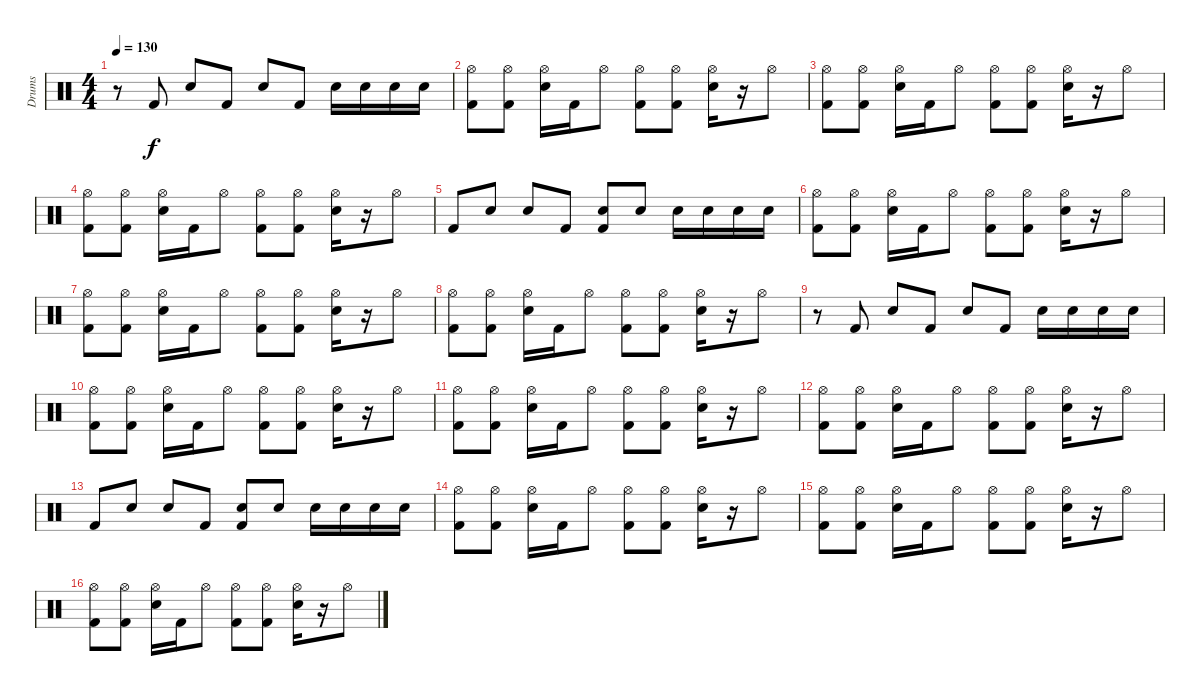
\track ("Drums" "Drums") {instrument percussion}
\staff {score}
\articulation defaults
\ts (4 4)
\tempo 130
\clef neutral
\ks c
r.8{dy f} "Kick (hit) 2".8 "Snare (hit) 2".8 "Kick (hit) 2".8 "Snare (hit) 2".8 "Kick (hit) 2".8 "Snare (hit) 2".16 "Snare (hit) 2".16 "Snare (hit) 2".16 "Snare (hit) 2".16 |
("Hi-Hat (open)" "Kick (hit) 2").8 ("Hi-Hat (open)" "Kick (hit) 2").8 ("Hi-Hat (open)" "Snare (hit) 2").16 "Kick (hit) 2".16 "Hi-Hat (open)".8 ("Hi-Hat (open)" "Kick (hit) 2").8 ("Hi-Hat (open)" "Kick (hit) 2").8 ("Hi-Hat (open)" "Snare (hit) 2").16 r.16 "Hi-Hat (open)".8 |
("Hi-Hat (open)" "Kick (hit) 2").8 ("Hi-Hat (open)" "Kick (hit) 2").8 ("Hi-Hat (open)" "Snare (hit) 2").16 "Kick (hit) 2".16 "Hi-Hat (open)".8 ("Hi-Hat (open)" "Kick (hit) 2").8 ("Hi-Hat (open)" "Kick (hit) 2").8 ("Hi-Hat (open)" "Snare (hit) 2").16 r.16 "Hi-Hat (open)".8 |
("Hi-Hat (open)" "Kick (hit) 2").8 ("Hi-Hat (open)" "Kick (hit) 2").8 ("Hi-Hat (open)" "Snare (hit) 2").16 "Kick (hit) 2".16 "Hi-Hat (open)".8 ("Hi-Hat (open)" "Kick (hit) 2").8 ("Hi-Hat (open)" "Kick (hit) 2").8 ("Hi-Hat (open)" "Snare (hit) 2").16 r.16 "Hi-Hat (open)".8 |
"Kick (hit) 2".8 "Snare (hit) 2".8 "Snare (hit) 2".8 "Kick (hit) 2".8 ("Snare (hit) 2" "Kick (hit) 2").8 "Snare (hit) 2".8 "Snare (hit) 2".16 "Snare (hit) 2".16 "Snare (hit) 2".16 "Snare (hit) 2".16 |
("Hi-Hat (open)" "Kick (hit) 2").8 ("Hi-Hat (open)" "Kick (hit) 2").8 ("Hi-Hat (open)" "Snare (hit) 2").16 "Kick (hit) 2".16 "Hi-Hat (open)".8 ("Hi-Hat (open)" "Kick (hit) 2").8 ("Hi-Hat (open)" "Kick (hit) 2").8 ("Hi-Hat (open)" "Snare (hit) 2").16 r.16 "Hi-Hat (open)".8 |
("Hi-Hat (open)" "Kick (hit) 2").8 ("Hi-Hat (open)" "Kick (hit) 2").8 ("Hi-Hat (open)" "Snare (hit) 2").16 "Kick (hit) 2".16 "Hi-Hat (open)".8 ("Hi-Hat (open)" "Kick (hit) 2").8 ("Hi-Hat (open)" "Kick (hit) 2").8 ("Hi-Hat (open)" "Snare (hit) 2").16 r.16 "Hi-Hat (open)".8 |
("Hi-Hat (open)" "Kick (hit) 2").8 ("Hi-Hat (open)" "Kick (hit) 2").8 ("Hi-Hat (open)" "Snare (hit) 2").16 "Kick (hit) 2".16 "Hi-Hat (open)".8 ("Hi-Hat (open)" "Kick (hit) 2").8 ("Hi-Hat (open)" "Kick (hit) 2").8 ("Hi-Hat (open)" "Snare (hit) 2").16 r.16 "Hi-Hat (open)".8 |
r.8 "Kick (hit) 2".8 "Snare (hit) 2".8 "Kick (hit) 2".8 "Snare (hit) 2".8 "Kick (hit) 2".8 "Snare (hit) 2".16 "Snare (hit) 2".16 "Snare (hit) 2".16 "Snare (hit) 2".16 |
("Hi-Hat (open)" "Kick (hit) 2").8 ("Hi-Hat (open)" "Kick (hit) 2").8 ("Hi-Hat (open)" "Snare (hit) 2").16 "Kick (hit) 2".16 "Hi-Hat (open)".8 ("Hi-Hat (open)" "Kick (hit) 2").8 ("Hi-Hat (open)" "Kick (hit) 2").8 ("Hi-Hat (open)" "Snare (hit) 2").16 r.16 "Hi-Hat (open)".8 |
("Hi-Hat (open)" "Kick (hit) 2").8 ("Hi-Hat (open)" "Kick (hit) 2").8 ("Hi-Hat (open)" "Snare (hit) 2").16 "Kick (hit) 2".16 "Hi-Hat (open)".8 ("Hi-Hat (open)" "Kick (hit) 2").8 ("Hi-Hat (open)" "Kick (hit) 2").8 ("Hi-Hat (open)" "Snare (hit) 2").16 r.16 "Hi-Hat (open)".8 |
("Hi-Hat (open)" "Kick (hit) 2").8 ("Hi-Hat (open)" "Kick (hit) 2").8 ("Hi-Hat (open)" "Snare (hit) 2").16 "Kick (hit) 2".16 "Hi-Hat (open)".8 ("Hi-Hat (open)" "Kick (hit) 2").8 ("Hi-Hat (open)" "Kick (hit) 2").8 ("Hi-Hat (open)" "Snare (hit) 2").16 r.16 "Hi-Hat (open)".8 |
"Kick (hit) 2".8 "Snare (hit) 2".8 "Snare (hit) 2".8 "Kick (hit) 2".8 ("Snare (hit) 2" "Kick (hit) 2").8 "Snare (hit) 2".8 "Snare (hit) 2".16 "Snare (hit) 2".16 "Snare (hit) 2".16 "Snare (hit) 2".16 |
("Hi-Hat (open)" "Kick (hit) 2").8 ("Hi-Hat (open)" "Kick (hit) 2").8 ("Hi-Hat (open)" "Snare (hit) 2").16 "Kick (hit) 2".16 "Hi-Hat (open)".8 ("Hi-Hat (open)" "Kick (hit) 2").8 ("Hi-Hat (open)" "Kick (hit) 2").8 ("Hi-Hat (open)" "Snare (hit) 2").16 r.16 "Hi-Hat (open)".8 |
("Hi-Hat (open)" "Kick (hit) 2").8 ("Hi-Hat (open)" "Kick (hit) 2").8 ("Hi-Hat (open)" "Snare (hit) 2").16 "Kick (hit) 2".16 "Hi-Hat (open)".8 ("Hi-Hat (open)" "Kick (hit) 2").8 ("Hi-Hat (open)" "Kick (hit) 2").8 ("Hi-Hat (open)" "Snare (hit) 2").16 r.16 "Hi-Hat (open)".8 |
("Hi-Hat (open)" "Kick (hit) 2").8 ("Hi-Hat (open)" "Kick (hit) 2").8 ("Hi-Hat (open)" "Snare (hit) 2").16 "Kick (hit) 2".16 "Hi-Hat (open)".8 ("Hi-Hat (open)" "Kick (hit) 2").8 ("Hi-Hat (open)" "Kick (hit) 2").8 ("Hi-Hat (open)" "Snare (hit) 2").16 r.16 "Hi-Hat (open)".8
